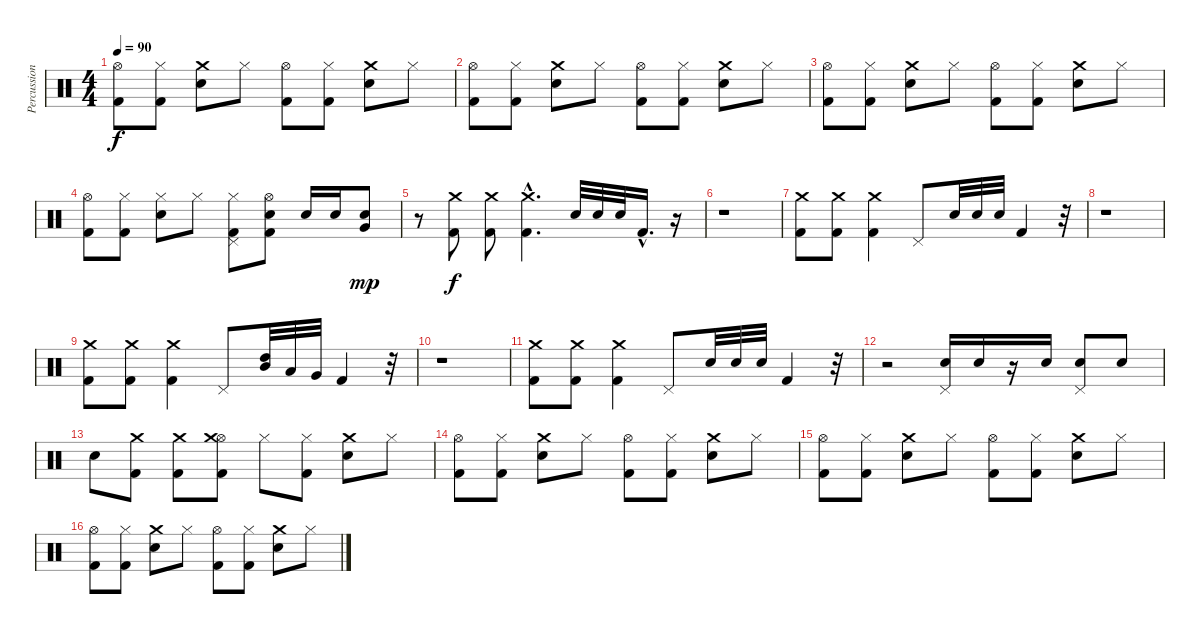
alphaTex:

\track ("Percussions" "Percussion") {instrument percussion}
\staff {score}
\articulation defaults
\ts (4 4)
\tempo 90
\clef neutral
\ks c
("Hi-Hat (open)" "Kick (hit) 2").8{dy f} ("Hi-Hat (closed)" "Kick (hit) 2").8 ("Crash medium (hit)" "Electric Snare (hit)").8 "Hi-Hat (closed)".8 ("Kick (hit) 2" "Hi-Hat (open)").8 ("Hi-Hat (closed)" "Kick (hit) 2").8 ("Crash medium (hit)" "Electric Snare (hit)").8 "Hi-Hat (closed)".8 |
("Hi-Hat (open)" "Kick (hit) 2").8 ("Hi-Hat (closed)" "Kick (hit) 2").8 ("Crash medium (hit)" "Electric Snare (hit)").8 "Hi-Hat (closed)".8 ("Kick (hit) 2" "Hi-Hat (open)").8 ("Hi-Hat (closed)" "Kick (hit) 2").8 ("Crash medium (hit)" "Electric Snare (hit)").8 "Hi-Hat (closed)".8 |
("Hi-Hat (open)" "Kick (hit) 2").8 ("Hi-Hat (closed)" "Kick (hit) 2").8 ("Crash medium (hit)" "Electric Snare (hit)").8 "Hi-Hat (closed)".8 ("Kick (hit) 2" "Hi-Hat (open)").8 ("Hi-Hat (closed)" "Kick (hit) 2").8 ("Crash medium (hit)" "Electric Snare (hit)").8 "Hi-Hat (closed)".8 |
("Hi-Hat (open)" "Kick (hit) 2").8 ("Hi-Hat (closed)" "Kick (hit) 2").8 ("Hi-Hat (closed)" "Electric Snare (hit)").8 "Hi-Hat (closed)".8 ("Pedal Hi-Hat (hit)" "Hi-Hat (closed)" "Kick (hit) 2").8 ("Hi-Hat (open)" "Electric Snare (hit)" "Kick (hit) 2").8 "Electric Snare (hit)".16 "Electric Snare (hit)".16 ("Electric Snare (hit)" "Very Low Tom (hit)").8{dy mp} |
r.8 ("Crash medium (hit)" "Kick (hit) 2").8{dy f} ("Crash medium (hit)" "Kick (hit) 2").8 ("Crash medium (hit)"{hac} "Kick (hit) 2"{hac}).4{d} "Electric Snare (hit)".32 "Snare (hit) 2".32 "Electric Snare (hit)".32 "Kick (hit) 2"{hac}.16{d} r.16 |
r.1 |
("Crash medium (hit)" "Kick (hit) 2").8 ("Crash medium (hit)" "Kick (hit) 2").8 ("Crash medium (hit)" "Kick (hit) 2").4 "Pedal Hi-Hat (hit)".8 "Electric Snare (hit)".32 "Snare (hit) 2".32 "Electric Snare (hit)".32 "Kick (hit) 2".4 r.32 |
r.1 |
("Crash medium (hit)" "Kick (hit) 2").8 ("Crash medium (hit)" "Kick (hit) 2").8 ("Crash medium (hit)" "Kick (hit) 2").4 "Pedal Hi-Hat (hit)".8 ("Mid Tom (hit)" "High Tom (hit)").32 "Low Tom (hit)".32 "Very Low Tom (hit)".32 "Kick (hit) 2".4 r.32 |
r.1 |
("Crash medium (hit)" "Kick (hit) 2").8 ("Crash medium (hit)" "Kick (hit) 2").8 ("Crash medium (hit)" "Kick (hit) 2").4 "Pedal Hi-Hat (hit)".8 "Electric Snare (hit)".32 "Snare (hit) 2".32 "Electric Snare (hit)".32 "Kick (hit) 2".4 r.32 |
r.2 ("Electric Snare (hit)" "Pedal Hi-Hat (hit)").16 "Electric Snare (hit)".16 r.16 "Electric Snare (hit)".16 ("Electric Snare (hit)" "Pedal Hi-Hat (hit)").8 "Electric Snare (hit)".8 |
"Electric Snare (hit)".8 ("Crash medium (hit)" "Kick (hit) 2").8 ("Crash medium (hit)" "Kick (hit) 2").8 ("Hi-Hat (open)" "Crash medium (hit)" "Kick (hit) 2").8 "Hi-Hat (closed)".8 ("Hi-Hat (closed)" "Kick (hit) 2").8 ("Crash medium (hit)" "Electric Snare (hit)").8 "Hi-Hat (closed)".8 |
("Hi-Hat (open)" "Kick (hit) 2").8 ("Hi-Hat (closed)" "Kick (hit) 2").8 ("Crash medium (hit)" "Electric Snare (hit)").8 "Hi-Hat (closed)".8 ("Kick (hit) 2" "Hi-Hat (open)").8 ("Hi-Hat (closed)" "Kick (hit) 2").8 ("Crash medium (hit)" "Electric Snare (hit)").8 "Hi-Hat (closed)".8 |
("Hi-Hat (open)" "Kick (hit) 2").8 ("Hi-Hat (closed)" "Kick (hit) 2").8 ("Crash medium (hit)" "Electric Snare (hit)").8 "Hi-Hat (closed)".8 ("Kick (hit) 2" "Hi-Hat (open)").8 ("Hi-Hat (closed)" "Kick (hit) 2").8 ("Crash medium (hit)" "Electric Snare (hit)").8 "Hi-Hat (closed)".8 |
("Hi-Hat (open)" "Kick (hit) 2").8 ("Hi-Hat (closed)" "Kick (hit) 2").8 ("Crash medium (hit)" "Electric Snare (hit)").8 "Hi-Hat (closed)".8 ("Kick (hit) 2" "Hi-Hat (open)").8 ("Hi-Hat (closed)" "Kick (hit) 2").8 ("Crash medium (hit)" "Electric Snare (hit)").8 "Hi-Hat (closed)".8
